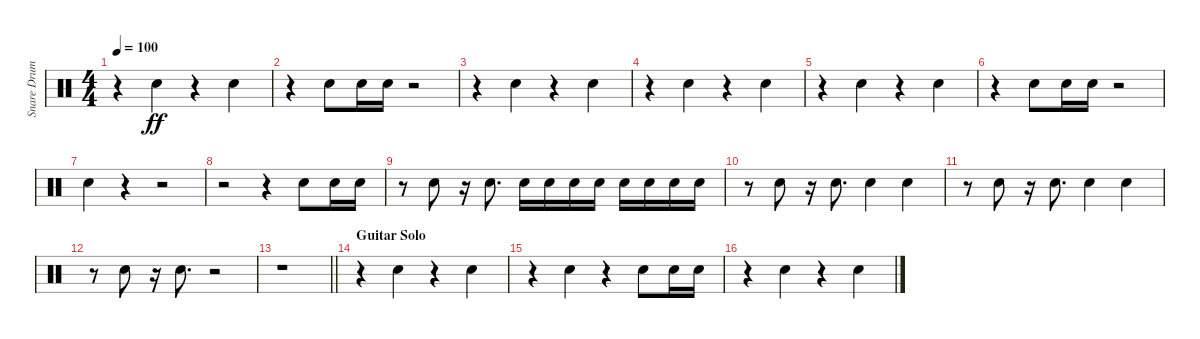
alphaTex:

\track ("Snare Drum - reverb" "Snare Drum") {instrument percussion}
\staff {score}
\articulation defaults
\ts (4 4)
\tempo 100
\clef neutral
\ks c
r.4{dy ff} "Snare (hit) 2".4 r.4 "Snare (hit) 2".4 |
r.4 "Snare (hit) 2".8 "Snare (hit) 2".16 "Snare (hit) 2".16 r.2 |
r.4 "Snare (hit) 2".4 r.4 "Snare (hit) 2".4 |
r.4 "Snare (hit) 2".4 r.4 "Snare (hit) 2".4 |
r.4 "Snare (hit) 2".4 r.4 "Snare (hit) 2".4 |
r.4 "Snare (hit) 2".8 "Snare (hit) 2".16 "Snare (hit) 2".16 r.2 |
"Snare (hit) 2".4 r.4 r.2 |
r.2 r.4 "Snare (hit) 2".8 "Snare (hit) 2".16 "Snare (hit) 2".16 |
r.8 "Snare (hit) 2".8 r.16 "Snare (hit) 2".8{d} "Snare (hit) 2".16 "Snare (hit) 2".16 "Snare (hit) 2".16 "Snare (hit) 2".16 "Snare (hit) 2".16 "Snare (hit) 2".16 "Snare (hit) 2".16 "Snare (hit) 2".16 |
r.8 "Snare (hit) 2".8 r.16 "Snare (hit) 2".8{d} "Snare (hit) 2".4 "Snare (hit) 2".4 |
r.8 "Snare (hit) 2".8 r.16 "Snare (hit) 2".8{d} "Snare (hit) 2".4 "Snare (hit) 2".4 |
r.8 "Snare (hit) 2".8 r.16 "Snare (hit) 2".8{d} r.2 |
\barLineRight lightlight
r.1 |
\section ("" "Guitar Solo")
r.4 "Snare (hit) 2".4 r.4 "Snare (hit) 2".4 |
r.4 "Snare (hit) 2".4 r.4 "Snare (hit) 2".8 "Snare (hit) 2".16 "Snare (hit) 2".16 |
r.4 "Snare (hit) 2".4 r.4 "Snare (hit) 2".4
